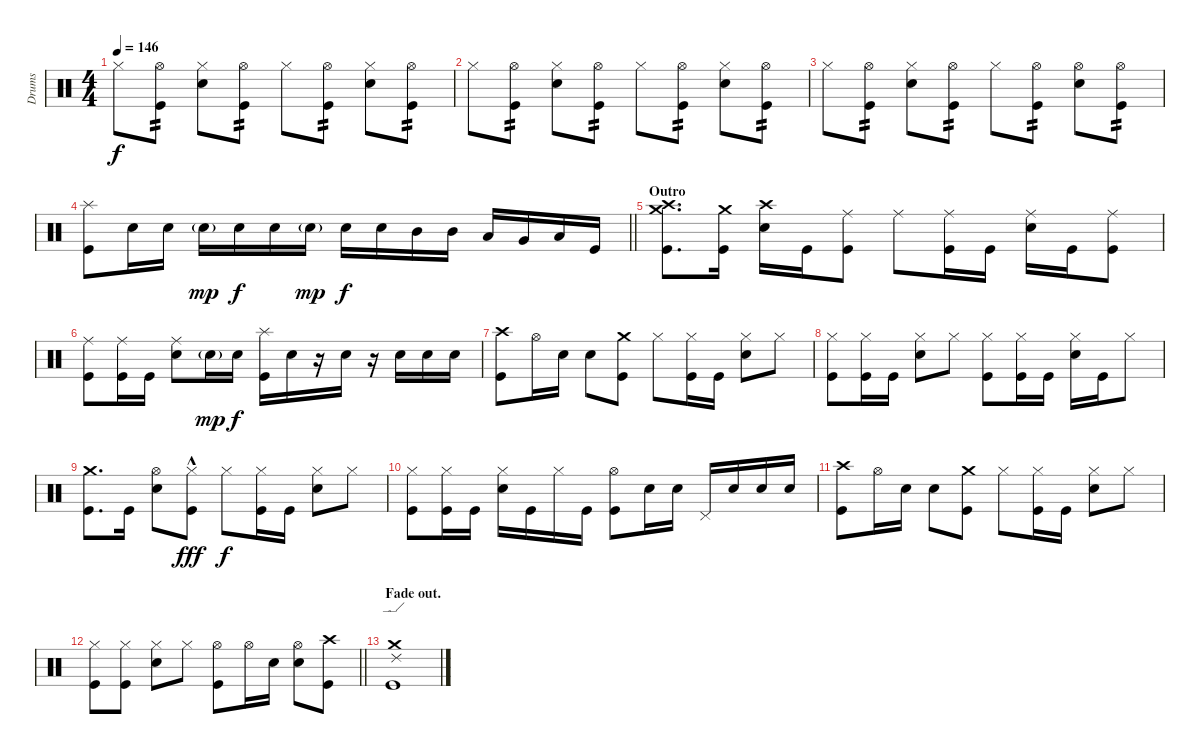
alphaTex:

\track ("Drums" "Drums") {instrument percussion}
\staff {score}
\articulation defaults
\ts (4 4)
\tempo 146
\clef neutral
\ks c "Hi-Hat (closed)".8{dy f}
("Hi-Hat (open)" "Kick (hit)").8{tp 2} ("Hi-Hat (closed)" "Electric Snare (hit)").8 ("Hi-Hat (open)" "Kick (hit)").8{tp 2} "Hi-Hat (closed)".8 ("Hi-Hat (open)" "Kick (hit)").8{tp 2} ("Hi-Hat (closed)" "Electric Snare (hit)").8 ("Hi-Hat (open)" "Kick (hit)").8{tp 2} |
"Hi-Hat (closed)".8 ("Hi-Hat (open)" "Kick (hit)").8{tp 2} ("Hi-Hat (closed)" "Electric Snare (hit)").8 ("Hi-Hat (open)" "Kick (hit)").8{tp 2} "Hi-Hat (closed)".8 ("Hi-Hat (open)" "Kick (hit)").8{tp 2} ("Hi-Hat (closed)" "Electric Snare (hit)").8 ("Hi-Hat (open)" "Kick (hit)").8{tp 2} |
"Hi-Hat (closed)".8 ("Hi-Hat (open)" "Kick (hit)").8{tp 2} ("Hi-Hat (closed)" "Electric Snare (hit)").8 ("Hi-Hat (open)" "Kick (hit)").8{tp 2} "Hi-Hat (closed)".8 ("Hi-Hat (open)" "Kick (hit)").8{tp 2} ("Hi-Hat (open)" "Electric Snare (hit)").8 ("Hi-Hat (open)" "Kick (hit)").8{tp 2} |
\barLineRight lightlight
("Splash (hit)" "Kick (hit)").8 "Electric Snare (hit)".16 "Electric Snare (hit)".16 "Electric Snare (hit)"{g}.16{dy mp} "Electric Snare (hit)".16{dy f} "Electric Snare (hit)".16 "Electric Snare (hit)"{g}.16{dy mp} "Electric Snare (hit)".16{dy f} "Electric Snare (hit)".16 "Mid Tom (hit)".16 "Mid Tom (hit)".16 "Low Tom (hit)".16 "Very Low Tom (hit)".16 "Low Floor Tom (hit)".16 "Kick (hit)".16 |
\section ("" "Outro")
("Crash medium (hit)" "Crash high (hit)" "Kick (hit)").8{d} ("Crash medium (hit)" "Kick (hit)").16 ("Crash high (hit)" "Electric Snare (hit)").16 "Kick (hit)".16 ("Ride (middle)" "Kick (hit)").8 "Ride (middle)".8 ("Ride (middle)" "Kick (hit)").16 "Kick (hit)".16 ("Ride (middle)" "Electric Snare (hit)").16 "Kick (hit)".16 ("Ride (middle)" "Kick (hit)").8 |
("Ride (middle)" "Kick (hit)").8 ("Ride (middle)" "Kick (hit)").16 "Kick (hit)".16 ("Ride (middle)" "Electric Snare (hit)").8 "Electric Snare (hit)"{g}.16{dy mp} "Electric Snare (hit)".16{dy f} ("Splash (hit)" "Kick (hit)").16 "Electric Snare (hit)".16 r.16 "Electric Snare (hit)".16 r.16 "Electric Snare (hit)".16 "Electric Snare (hit)".16 "Electric Snare (hit)".16 |
("Crash high (hit)" "Kick (hit)").8 "Hi-Hat (open)".16 "Electric Snare (hit)".16 "Electric Snare (hit)".8 ("Crash medium (hit)" "Kick (hit)").8 "Hi-Hat (closed)".8 ("Hi-Hat (closed)" "Kick (hit)").16 "Kick (hit)".16 ("Hi-Hat (closed)" "Electric Snare (hit)").8 "Hi-Hat (closed)".8 |
("Hi-Hat (closed)" "Kick (hit)").8 ("Hi-Hat (closed)" "Kick (hit)").16 "Kick (hit)".16 ("Hi-Hat (closed)" "Electric Snare (hit)").8 "Hi-Hat (closed)".8 ("Hi-Hat (closed)" "Kick (hit)").8 ("Hi-Hat (closed)" "Kick (hit)").16 "Kick (hit)".16 ("Hi-Hat (closed)" "Electric Snare (hit)").16 "Kick (hit)".16 "Hi-Hat (closed)".8 |
("Crash medium (hit)" "Kick (hit)").8{d} "Kick (hit)".16 ("Hi-Hat (open)" "Electric Snare (hit)").8 ("Hi-Hat (closed)"{hac} "Kick (hit)"{hac}).8{dy fff} "Hi-Hat (closed)".8{dy f} ("Hi-Hat (closed)" "Kick (hit)").16 "Kick (hit)".16 ("Hi-Hat (closed)" "Electric Snare (hit)").8 "Hi-Hat (closed)".8 |
("Hi-Hat (closed)" "Kick (hit)").8 ("Hi-Hat (closed)" "Kick (hit)").16 "Kick (hit)".16 ("Hi-Hat (closed)" "Electric Snare (hit)").16 "Kick (hit)".16 "Hi-Hat (closed)".16 "Kick (hit)".16 ("Hi-Hat (open)" "Kick (hit)").8 "Electric Snare (hit)".16 "Electric Snare (hit)".16 "Pedal Hi-Hat (hit)".16 "Electric Snare (hit)".16 "Electric Snare (hit)".16 "Electric Snare (hit)".16 |
("Crash high (hit)" "Kick (hit)").8 "Hi-Hat (open)".16 "Electric Snare (hit)".16 "Electric Snare (hit)".8 ("Crash medium (hit)" "Kick (hit)").8 "Hi-Hat (closed)".8 ("Hi-Hat (closed)" "Kick (hit)").16 "Kick (hit)".16 ("Hi-Hat (closed)" "Electric Snare (hit)").8 "Hi-Hat (closed)".8 |
\barLineRight lightlight
("Hi-Hat (closed)" "Kick (hit)").8 ("Hi-Hat (closed)" "Kick (hit)").8 ("Hi-Hat (closed)" "Electric Snare (hit)").8 "Hi-Hat (closed)".8 ("Hi-Hat (open)" "Kick (hit)").8 "Hi-Hat (open)".16 "Electric Snare (hit)".16 ("Hi-Hat (open)" "Electric Snare (hit)").8 ("Crash high (hit)" "Kick (hit)").8 |
\section ("" "Fade out.")
("Crash medium (hit)" "Ride (edge) 2" "Kick (hit)").1
